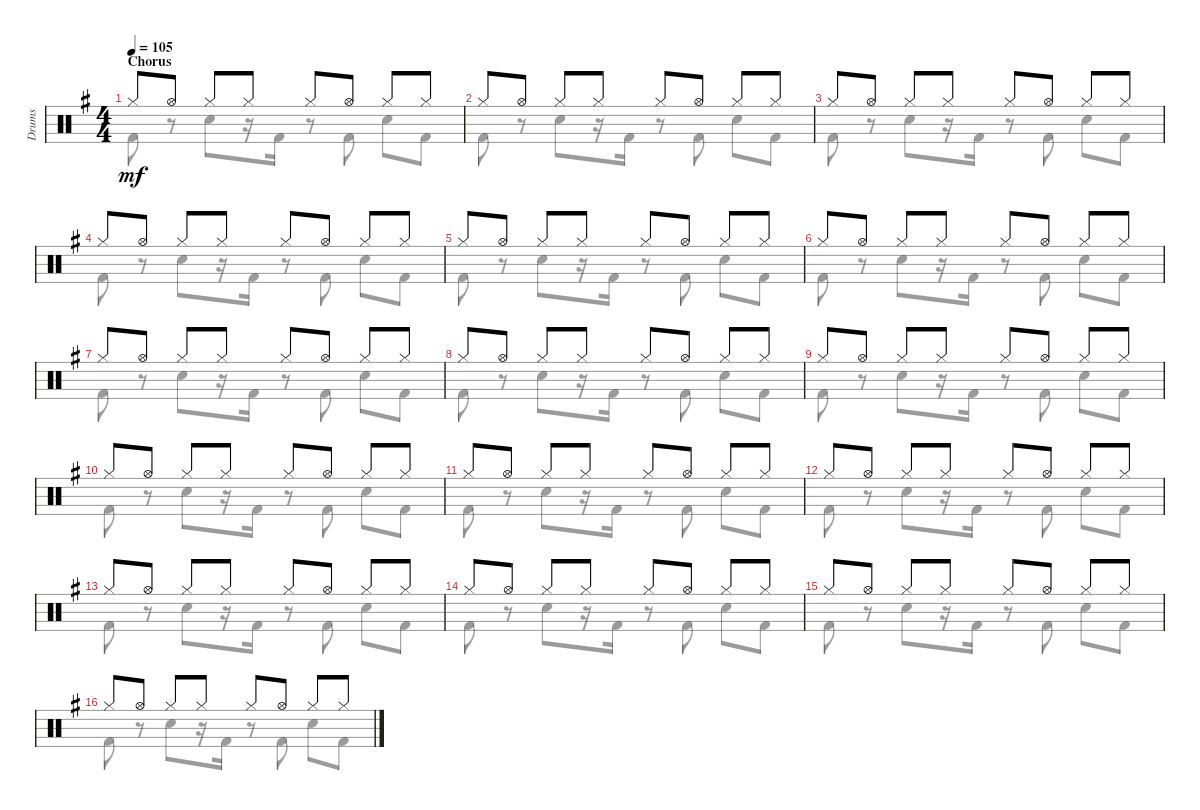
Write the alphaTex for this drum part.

\track ("Drums" "Drums") {instrument percussion}
\staff {score}
\articulation defaults
\voice
\ts (4 4)
\section ("" "Chorus")
\tempo 105
\clef neutral
\ks eminor "Hi-Hat (closed)".8{dy mf} "Hi-Hat (open)".8 "Hi-Hat (closed)".8 "Hi-Hat (closed)".8 "Hi-Hat (closed)".8 "Hi-Hat (open)".8 "Hi-Hat (closed)".8 "Hi-Hat (closed)".8
|
"Hi-Hat (closed)".8 "Hi-Hat (open)".8 "Hi-Hat (closed)".8 "Hi-Hat (closed)".8 "Hi-Hat (closed)".8 "Hi-Hat (open)".8 "Hi-Hat (closed)".8 "Hi-Hat (closed)".8 |
"Hi-Hat (closed)".8 "Hi-Hat (open)".8 "Hi-Hat (closed)".8 "Hi-Hat (closed)".8 "Hi-Hat (closed)".8 "Hi-Hat (open)".8 "Hi-Hat (closed)".8 "Hi-Hat (closed)".8 |
"Hi-Hat (closed)".8 "Hi-Hat (open)".8 "Hi-Hat (closed)".8 "Hi-Hat (closed)".8 "Hi-Hat (closed)".8 "Hi-Hat (open)".8 "Hi-Hat (closed)".8 "Hi-Hat (closed)".8 |
"Hi-Hat (closed)".8 "Hi-Hat (open)".8 "Hi-Hat (closed)".8 "Hi-Hat (closed)".8 "Hi-Hat (closed)".8 "Hi-Hat (open)".8 "Hi-Hat (closed)".8 "Hi-Hat (closed)".8 |
"Hi-Hat (closed)".8 "Hi-Hat (open)".8 "Hi-Hat (closed)".8 "Hi-Hat (closed)".8 "Hi-Hat (closed)".8 "Hi-Hat (open)".8 "Hi-Hat (closed)".8 "Hi-Hat (closed)".8 |
"Hi-Hat (closed)".8 "Hi-Hat (open)".8 "Hi-Hat (closed)".8 "Hi-Hat (closed)".8 "Hi-Hat (closed)".8 "Hi-Hat (open)".8 "Hi-Hat (closed)".8 "Hi-Hat (closed)".8 |
"Hi-Hat (closed)".8 "Hi-Hat (open)".8 "Hi-Hat (closed)".8 "Hi-Hat (closed)".8 "Hi-Hat (closed)".8 "Hi-Hat (open)".8 "Hi-Hat (closed)".8 "Hi-Hat (closed)".8 |
"Hi-Hat (closed)".8 "Hi-Hat (open)".8 "Hi-Hat (closed)".8 "Hi-Hat (closed)".8 "Hi-Hat (closed)".8 "Hi-Hat (open)".8 "Hi-Hat (closed)".8 "Hi-Hat (closed)".8 |
"Hi-Hat (closed)".8 "Hi-Hat (open)".8 "Hi-Hat (closed)".8 "Hi-Hat (closed)".8 "Hi-Hat (closed)".8 "Hi-Hat (open)".8 "Hi-Hat (closed)".8 "Hi-Hat (closed)".8 |
"Hi-Hat (closed)".8 "Hi-Hat (open)".8 "Hi-Hat (closed)".8 "Hi-Hat (closed)".8 "Hi-Hat (closed)".8 "Hi-Hat (open)".8 "Hi-Hat (closed)".8 "Hi-Hat (closed)".8 |
"Hi-Hat (closed)".8 "Hi-Hat (open)".8 "Hi-Hat (closed)".8 "Hi-Hat (closed)".8 "Hi-Hat (closed)".8 "Hi-Hat (open)".8 "Hi-Hat (closed)".8 "Hi-Hat (closed)".8 |
"Hi-Hat (closed)".8 "Hi-Hat (open)".8 "Hi-Hat (closed)".8 "Hi-Hat (closed)".8 "Hi-Hat (closed)".8 "Hi-Hat (open)".8 "Hi-Hat (closed)".8 "Hi-Hat (closed)".8 |
"Hi-Hat (closed)".8 "Hi-Hat (open)".8 "Hi-Hat (closed)".8 "Hi-Hat (closed)".8 "Hi-Hat (closed)".8 "Hi-Hat (open)".8 "Hi-Hat (closed)".8 "Hi-Hat (closed)".8 |
"Hi-Hat (closed)".8 "Hi-Hat (open)".8 "Hi-Hat (closed)".8 "Hi-Hat (closed)".8 "Hi-Hat (closed)".8 "Hi-Hat (open)".8 "Hi-Hat (closed)".8 "Hi-Hat (closed)".8 |
"Hi-Hat (closed)".8 "Hi-Hat (open)".8 "Hi-Hat (closed)".8 "Hi-Hat (closed)".8 "Hi-Hat (closed)".8 "Hi-Hat (open)".8 "Hi-Hat (closed)".8 "Hi-Hat (closed)".8
\voice
\clef neutral
\ottava regular
\simile none
\ks eminor "Kick (hit) 2".8{dy mf}
r.8 "Snare (hit) 2".8 r.16 "Kick (hit) 2".16 r.8 "Kick (hit) 2".8 "Snare (hit) 2".8 "Kick (hit) 2".8 |
"Kick (hit) 2".8 r.8 "Snare (hit) 2".8 r.16 "Kick (hit) 2".16 r.8 "Kick (hit) 2".8 "Snare (hit) 2".8 "Kick (hit) 2".8 |
"Kick (hit) 2".8 r.8 "Snare (hit) 2".8 r.16 "Kick (hit) 2".16 r.8 "Kick (hit) 2".8 "Snare (hit) 2".8 "Kick (hit) 2".8 |
"Kick (hit) 2".8 r.8 "Snare (hit) 2".8 r.16 "Kick (hit) 2".16 r.8 "Kick (hit) 2".8 "Snare (hit) 2".8 "Kick (hit) 2".8 |
"Kick (hit) 2".8 r.8 "Snare (hit) 2".8 r.16 "Kick (hit) 2".16 r.8 "Kick (hit) 2".8 "Snare (hit) 2".8 "Kick (hit) 2".8 |
"Kick (hit) 2".8 r.8 "Snare (hit) 2".8 r.16 "Kick (hit) 2".16 r.8 "Kick (hit) 2".8 "Snare (hit) 2".8 "Kick (hit) 2".8 |
"Kick (hit) 2".8 r.8 "Snare (hit) 2".8 r.16 "Kick (hit) 2".16 r.8 "Kick (hit) 2".8 "Snare (hit) 2".8 "Kick (hit) 2".8 |
"Kick (hit) 2".8 r.8 "Snare (hit) 2".8 r.16 "Kick (hit) 2".16 r.8 "Kick (hit) 2".8 "Snare (hit) 2".8 "Kick (hit) 2".8 |
"Kick (hit) 2".8 r.8 "Snare (hit) 2".8 r.16 "Kick (hit) 2".16 r.8 "Kick (hit) 2".8 "Snare (hit) 2".8 "Kick (hit) 2".8 |
"Kick (hit) 2".8 r.8 "Snare (hit) 2".8 r.16 "Kick (hit) 2".16 r.8 "Kick (hit) 2".8 "Snare (hit) 2".8 "Kick (hit) 2".8 |
"Kick (hit) 2".8 r.8 "Snare (hit) 2".8 r.16 "Kick (hit) 2".16 r.8 "Kick (hit) 2".8 "Snare (hit) 2".8 "Kick (hit) 2".8 |
"Kick (hit) 2".8 r.8 "Snare (hit) 2".8 r.16 "Kick (hit) 2".16 r.8 "Kick (hit) 2".8 "Snare (hit) 2".8 "Kick (hit) 2".8 |
"Kick (hit) 2".8 r.8 "Snare (hit) 2".8 r.16 "Kick (hit) 2".16 r.8 "Kick (hit) 2".8 "Snare (hit) 2".8 "Kick (hit) 2".8 |
"Kick (hit) 2".8 r.8 "Snare (hit) 2".8 r.16 "Kick (hit) 2".16 r.8 "Kick (hit) 2".8 "Snare (hit) 2".8 "Kick (hit) 2".8 |
"Kick (hit) 2".8 r.8 "Snare (hit) 2".8 r.16 "Kick (hit) 2".16 r.8 "Kick (hit) 2".8 "Snare (hit) 2".8 "Kick (hit) 2".8 |
"Kick (hit) 2".8 r.8 "Snare (hit) 2".8 r.16 "Kick (hit) 2".16 r.8 "Kick (hit) 2".8 "Snare (hit) 2".8 "Kick (hit) 2".8
